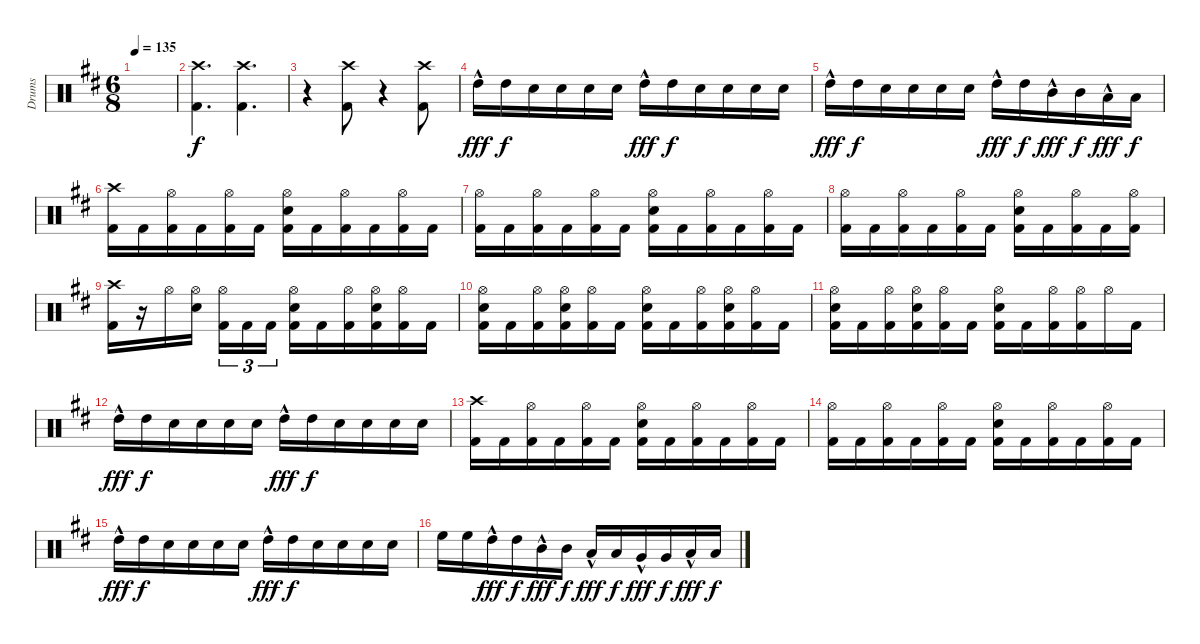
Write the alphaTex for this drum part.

\track ("Drums" "Drums") {instrument percussion}
\staff {score}
\articulation defaults
\ts (6 8)
\tempo 135
\clef neutral
\ks bminor
|
("Kick (hit) 2" "Crash high (hit)").4{d} ("Kick (hit) 2" "Crash high (hit)").4{d} |
r.4 ("Kick (hit) 2" "Crash high (hit)").8 r.4 ("Kick (hit) 2" "Crash high (hit)").8 |
"High Tom (hit)"{hac}.16{dy fff} "High Tom (hit)".16{dy f} "Electric Snare (hit)".16 "Electric Snare (hit)".16 "Electric Snare (hit)".16 "Electric Snare (hit)".16 "High Tom (hit)"{hac}.16{dy fff} "High Tom (hit)".16{dy f} "Electric Snare (hit)".16 "Electric Snare (hit)".16 "Electric Snare (hit)".16 "Electric Snare (hit)".16 |
"High Tom (hit)"{hac}.16{dy fff} "High Tom (hit)".16{dy f} "Electric Snare (hit)".16 "Electric Snare (hit)".16 "Electric Snare (hit)".16 "Electric Snare (hit)".16 "High Tom (hit)"{hac}.16{dy fff} "High Tom (hit)".16{dy f} "Mid Tom (hit)"{hac}.16{dy fff} "Mid Tom (hit)".16{dy f} "Low Tom (hit)"{hac}.16{dy fff} "Low Tom (hit)".16{dy f} |
("Kick (hit) 2" "Crash high (hit)").16 "Kick (hit) 2".16 ("Kick (hit) 2" "Hi-Hat (open)").16 "Kick (hit) 2".16 ("Kick (hit) 2" "Hi-Hat (open)").16 "Kick (hit) 2".16 ("Kick (hit) 2" "Electric Snare (hit)" "Hi-Hat (open)").16 "Kick (hit) 2".16 ("Kick (hit) 2" "Hi-Hat (open)").16 "Kick (hit) 2".16 ("Kick (hit) 2" "Hi-Hat (open)").16 "Kick (hit) 2".16 |
("Kick (hit) 2" "Hi-Hat (open)").16 "Kick (hit) 2".16 ("Kick (hit) 2" "Hi-Hat (open)").16 "Kick (hit) 2".16 ("Kick (hit) 2" "Hi-Hat (open)").16 "Kick (hit) 2".16 ("Kick (hit) 2" "Electric Snare (hit)" "Hi-Hat (open)").16 "Kick (hit) 2".16 ("Kick (hit) 2" "Hi-Hat (open)").16 "Kick (hit) 2".16 ("Kick (hit) 2" "Hi-Hat (open)").16 "Kick (hit) 2".16 |
("Kick (hit) 2" "Hi-Hat (open)").16 "Kick (hit) 2".16 ("Kick (hit) 2" "Hi-Hat (open)").16 "Kick (hit) 2".16 ("Kick (hit) 2" "Hi-Hat (open)").16 "Kick (hit) 2".16 ("Kick (hit) 2" "Electric Snare (hit)" "Hi-Hat (open)").16 "Kick (hit) 2".16 ("Kick (hit) 2" "Hi-Hat (open)").16 "Kick (hit) 2".16 ("Kick (hit) 2" "Hi-Hat (open)").16 |
("Kick (hit) 2" "Crash high (hit)").16 r.16 "Hi-Hat (open)".16 ("Electric Snare (hit)" "Hi-Hat (open)").16{beam splitsecondary} ("Kick (hit) 2" "Hi-Hat (open)").16{tu (3 2)} "Kick (hit) 2".16{tu (3 2)} "Kick (hit) 2".16{tu (3 2)} ("Kick (hit) 2" "Electric Snare (hit)" "Hi-Hat (open)").16 "Kick (hit) 2".16 ("Kick (hit) 2" "Hi-Hat (open)").16 ("Kick (hit) 2" "Electric Snare (hit)" "Hi-Hat (open)").16 ("Kick (hit) 2" "Hi-Hat (open)").16 "Kick (hit) 2".16 |
("Kick (hit) 2" "Electric Snare (hit)" "Hi-Hat (open)").16 "Kick (hit) 2".16 ("Kick (hit) 2" "Hi-Hat (open)").16 ("Kick (hit) 2" "Electric Snare (hit)" "Hi-Hat (open)").16 ("Kick (hit) 2" "Hi-Hat (open)").16 "Kick (hit) 2".16 ("Kick (hit) 2" "Electric Snare (hit)" "Hi-Hat (open)").16 "Kick (hit) 2".16 ("Kick (hit) 2" "Hi-Hat (open)").16 ("Kick (hit) 2" "Electric Snare (hit)" "Hi-Hat (open)").16 ("Kick (hit) 2" "Hi-Hat (open)").16 "Kick (hit) 2".16 |
("Kick (hit) 2" "Electric Snare (hit)" "Hi-Hat (open)").16 "Kick (hit) 2".16 ("Kick (hit) 2" "Hi-Hat (open)").16 ("Kick (hit) 2" "Electric Snare (hit)" "Hi-Hat (open)").16 ("Kick (hit) 2" "Hi-Hat (open)").16 "Kick (hit) 2".16 ("Kick (hit) 2" "Electric Snare (hit)" "Hi-Hat (open)").16 "Kick (hit) 2".16 ("Kick (hit) 2" "Hi-Hat (open)").16 ("Kick (hit) 2" "Hi-Hat (open)").16 "Hi-Hat (open)".16 "Kick (hit) 2".16 |
"High Tom (hit)"{hac}.16{dy fff} "High Tom (hit)".16{dy f} "Electric Snare (hit)".16 "Electric Snare (hit)".16 "Electric Snare (hit)".16 "Electric Snare (hit)".16 "High Tom (hit)"{hac}.16{dy fff} "High Tom (hit)".16{dy f} "Electric Snare (hit)".16 "Electric Snare (hit)".16 "Electric Snare (hit)".16 "Electric Snare (hit)".16 |
("Kick (hit) 2" "Crash high (hit)").16 "Kick (hit) 2".16 ("Kick (hit) 2" "Hi-Hat (open)").16 "Kick (hit) 2".16 ("Kick (hit) 2" "Hi-Hat (open)").16 "Kick (hit) 2".16 ("Kick (hit) 2" "Electric Snare (hit)" "Hi-Hat (open)").16 "Kick (hit) 2".16 ("Kick (hit) 2" "Hi-Hat (open)").16 "Kick (hit) 2".16 ("Kick (hit) 2" "Hi-Hat (open)").16 "Kick (hit) 2".16 |
("Kick (hit) 2" "Hi-Hat (open)").16 "Kick (hit) 2".16 ("Kick (hit) 2" "Hi-Hat (open)").16 "Kick (hit) 2".16 ("Kick (hit) 2" "Hi-Hat (open)").16 "Kick (hit) 2".16 ("Kick (hit) 2" "Electric Snare (hit)" "Hi-Hat (open)").16 "Kick (hit) 2".16 ("Kick (hit) 2" "Hi-Hat (open)").16 "Kick (hit) 2".16 ("Kick (hit) 2" "Hi-Hat (open)").16 "Kick (hit) 2".16 |
"High Tom (hit)"{hac}.16{dy fff} "High Tom (hit)".16{dy f} "Electric Snare (hit)".16 "Electric Snare (hit)".16 "Electric Snare (hit)".16 "Electric Snare (hit)".16 "High Tom (hit)"{hac}.16{dy fff} "High Tom (hit)".16{dy f} "Electric Snare (hit)".16 "Electric Snare (hit)".16 "Electric Snare (hit)".16 "Electric Snare (hit)".16 |
"High Floor Tom (hit)".16 "High Floor Tom (hit)".16 "High Tom (hit)"{hac}.16{dy fff} "High Tom (hit)".16{dy f} "Mid Tom (hit)"{hac}.16{dy fff} "Mid Tom (hit)".16{dy f} "Low Tom (hit)"{hac}.16{dy fff} "Low Tom (hit)".16{dy f} "Very Low Tom (hit)"{hac}.16{dy fff} "Very Low Tom (hit)".16{dy f} "Low Floor Tom (hit)"{hac}.16{dy fff} "Low Floor Tom (hit)".16{dy f}
